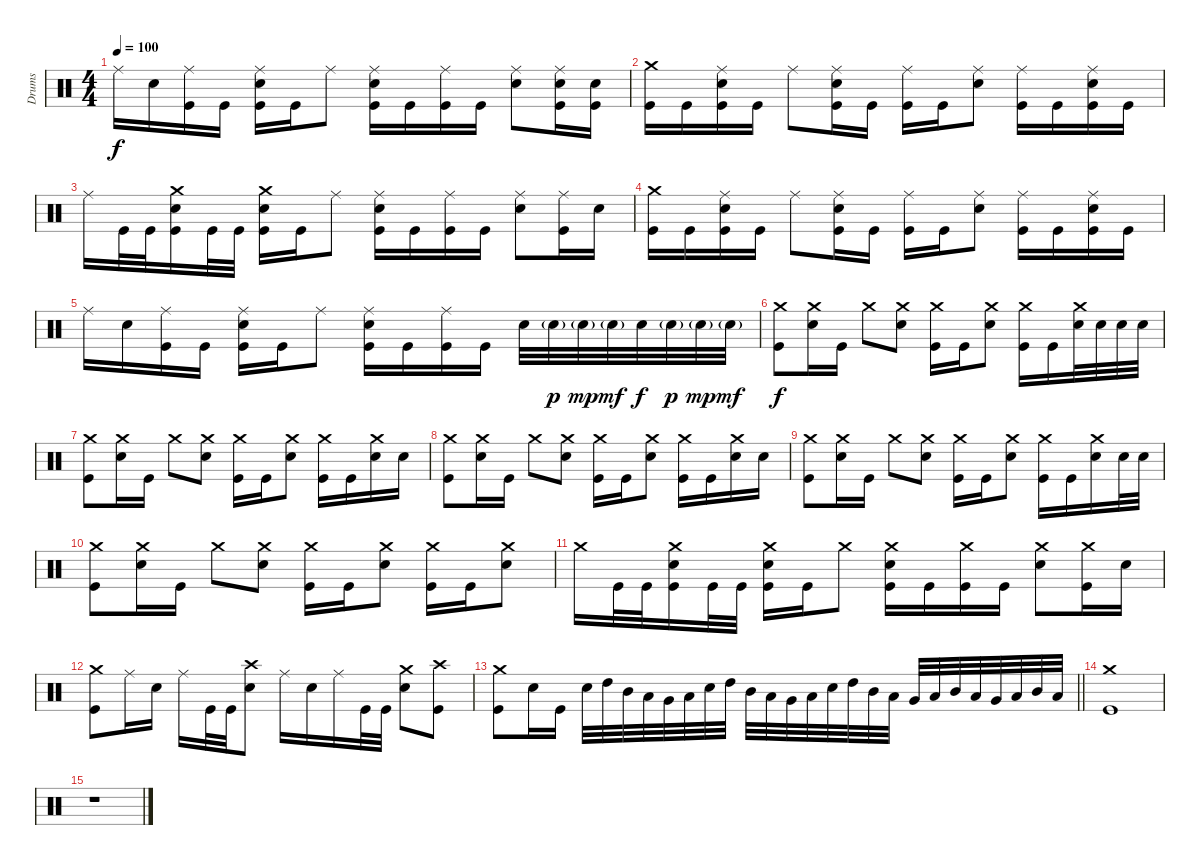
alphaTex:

\track ("Drums" "Drums") {instrument percussion}
\staff {score}
\articulation defaults
\ts (4 4)
\tempo 100
\clef neutral
\ks c "Ride (middle)".16{dy f} "Electric Snare (hit)".16
("Ride (middle)" "Kick (hit)").16 "Kick (hit)".16 ("Ride (middle)" "Electric Snare (hit)" "Kick (hit)").16 "Kick (hit)".16 "Ride (middle)".8 ("Ride (middle)" "Electric Snare (hit)" "Kick (hit)").16 "Kick (hit)".16 ("Ride (middle)" "Kick (hit)").16 "Kick (hit)".16 ("Ride (middle)" "Electric Snare (hit)").8 ("Ride (middle)" "Electric Snare (hit)" "Kick (hit)").16 ("Electric Snare (hit)" "Kick (hit)").16 |
("Crash medium (hit)" "Kick (hit)").16 "Kick (hit)".16 ("Ride (middle)" "Electric Snare (hit)" "Kick (hit)").16 "Kick (hit)".16 "Ride (middle)".8 ("Ride (middle)" "Electric Snare (hit)" "Kick (hit)").16 "Kick (hit)".16 ("Ride (middle)" "Kick (hit)").16 "Kick (hit)".16 ("Ride (middle)" "Electric Snare (hit)").8 ("Ride (middle)" "Kick (hit)").16 "Kick (hit)".16 ("Ride (middle)" "Electric Snare (hit)" "Kick (hit)").16 "Kick (hit)".16 |
"Ride (middle)".16 "Kick (hit)".32 "Kick (hit)".32 ("Crash medium (hit)" "Electric Snare (hit)" "Kick (hit)").16 "Kick (hit)".32 "Kick (hit)".32 ("Crash medium (hit)" "Electric Snare (hit)" "Kick (hit)").16 "Kick (hit)".16 "Ride (middle)".8 ("Ride (middle)" "Electric Snare (hit)" "Kick (hit)").16 "Kick (hit)".16 ("Ride (middle)" "Kick (hit)").16 "Kick (hit)".16 ("Ride (middle)" "Electric Snare (hit)").8 ("Ride (middle)" "Kick (hit)").16 "Electric Snare (hit)".16 |
("Crash medium (hit)" "Kick (hit)").16 "Kick (hit)".16 ("Ride (middle)" "Electric Snare (hit)" "Kick (hit)").16 "Kick (hit)".16 "Ride (middle)".8 ("Ride (middle)" "Electric Snare (hit)" "Kick (hit)").16 "Kick (hit)".16 ("Ride (middle)" "Kick (hit)").16 "Kick (hit)".16 ("Ride (middle)" "Electric Snare (hit)").8 ("Ride (middle)" "Kick (hit)").16 "Kick (hit)".16 ("Ride (middle)" "Electric Snare (hit)" "Kick (hit)").16 "Kick (hit)".16 |
"Ride (middle)".16 "Electric Snare (hit)".16 ("Ride (middle)" "Kick (hit)").16 "Kick (hit)".16 ("Ride (middle)" "Electric Snare (hit)" "Kick (hit)").16 "Kick (hit)".16 "Ride (middle)".8 ("Ride (middle)" "Electric Snare (hit)" "Kick (hit)").16 "Kick (hit)".16 ("Ride (middle)" "Kick (hit)").16 "Kick (hit)".16 "Electric Snare (hit)".32 "Electric Snare (hit)"{g}.32{dy p} "Electric Snare (hit)"{g}.32{dy mp} "Electric Snare (hit)"{g}.32{dy mf} "Electric Snare (hit)".32{dy f} "Electric Snare (hit)"{g}.32{dy p} "Electric Snare (hit)"{g}.32{dy mp} "Electric Snare (hit)"{g}.32{dy mf} |
("Crash medium (hit)" "Kick (hit)").8{dy f} ("Crash medium (hit)" "Electric Snare (hit)").16 "Kick (hit)".16 "Crash medium (hit)".8 ("Crash medium (hit)" "Electric Snare (hit)").8 ("Crash medium (hit)" "Kick (hit)").16 "Kick (hit)".16 ("Crash medium (hit)" "Electric Snare (hit)").8 ("Crash medium (hit)" "Kick (hit)").16 "Kick (hit)".16 ("Crash medium (hit)" "Electric Snare (hit)").32 "Electric Snare (hit)".32 "Electric Snare (hit)".32 "Electric Snare (hit)".32 |
("Crash medium (hit)" "Kick (hit)").8 ("Crash medium (hit)" "Electric Snare (hit)").16 "Kick (hit)".16 "Crash medium (hit)".8 ("Crash medium (hit)" "Electric Snare (hit)").8 ("Crash medium (hit)" "Kick (hit)").16 "Kick (hit)".16 ("Crash medium (hit)" "Electric Snare (hit)").8 ("Crash medium (hit)" "Kick (hit)").16 "Kick (hit)".16 ("Crash medium (hit)" "Electric Snare (hit)").16 "Electric Snare (hit)".16 |
("Crash medium (hit)" "Kick (hit)").8 ("Crash medium (hit)" "Electric Snare (hit)").16 "Kick (hit)".16 "Crash medium (hit)".8 ("Crash medium (hit)" "Electric Snare (hit)").8 ("Crash medium (hit)" "Kick (hit)").16 "Kick (hit)".16 ("Crash medium (hit)" "Electric Snare (hit)").8 ("Crash medium (hit)" "Kick (hit)").16 "Kick (hit)".16 ("Crash medium (hit)" "Electric Snare (hit)").16 "Electric Snare (hit)".16 |
("Crash medium (hit)" "Kick (hit)").8 ("Crash medium (hit)" "Electric Snare (hit)").16 "Kick (hit)".16 "Crash medium (hit)".8 ("Crash medium (hit)" "Electric Snare (hit)").8 ("Crash medium (hit)" "Kick (hit)").16 "Kick (hit)".16 ("Crash medium (hit)" "Electric Snare (hit)").8 ("Crash medium (hit)" "Kick (hit)").16 "Kick (hit)".16 ("Crash medium (hit)" "Electric Snare (hit)").16 "Electric Snare (hit)".32 "Electric Snare (hit)".32 |
("Crash medium (hit)" "Kick (hit)").8 ("Crash medium (hit)" "Electric Snare (hit)").16 "Kick (hit)".16 "Crash medium (hit)".8 ("Crash medium (hit)" "Electric Snare (hit)").8 ("Crash medium (hit)" "Kick (hit)").16 "Kick (hit)".16 ("Crash medium (hit)" "Electric Snare (hit)").8 ("Crash medium (hit)" "Kick (hit)").16 "Kick (hit)".16 ("Crash medium (hit)" "Electric Snare (hit)").8 |
"Crash medium (hit)".16 "Kick (hit)".32 "Kick (hit)".32 ("Crash medium (hit)" "Electric Snare (hit)" "Kick (hit)").16 "Kick (hit)".32 "Kick (hit)".32 ("Crash medium (hit)" "Electric Snare (hit)" "Kick (hit)").16 "Kick (hit)".16 "Crash medium (hit)".8 ("Crash medium (hit)" "Electric Snare (hit)" "Kick (hit)").16 "Kick (hit)".16 ("Crash medium (hit)" "Kick (hit)").16 "Kick (hit)".16 ("Crash medium (hit)" "Electric Snare (hit)").8 ("Crash medium (hit)" "Kick (hit)").16 "Electric Snare (hit)".16 |
("Crash medium (hit)" "Kick (hit)").8 "Ride (middle)".16 "Electric Snare (hit)".16 "Ride (middle)".16 "Kick (hit)".32 "Kick (hit)".32 ("Crash high (hit)" "Electric Snare (hit)").8 "Ride (middle)".16 "Electric Snare (hit)".16 "Ride (middle)".16 "Kick (hit)".32 "Kick (hit)".32 ("Crash medium (hit)" "Electric Snare (hit)").8 ("Crash high (hit)" "Kick (hit)").8 |
\barLineRight lightlight
("Crash medium (hit)" "Kick (hit)").8 "Electric Snare (hit)".16 "Kick (hit)".16 "Electric Snare (hit)".32 "High Tom (hit)".32 "Mid Tom (hit)".32 "Low Tom (hit)".32 "Very Low Tom (hit)".32 "Low Floor Tom (hit)".32 "Electric Snare (hit)".32 "High Tom (hit)".32 "Mid Tom (hit)".32 "Low Tom (hit)".32 "Very Low Tom (hit)".32 "Low Floor Tom (hit)".32 "Electric Snare (hit)".32 "High Tom (hit)".32 "Mid Tom (hit)".32 "Low Tom (hit)".32 "Very Low Tom (hit)".32 "Low Floor Tom (hit)".32 "Mid Tom (hit)".32 "Low Tom (hit)".32 "Very Low Tom (hit)".32 "Low Floor Tom (hit)".32 "Mid Tom (hit)".32 "Low Tom (hit)".32 |
("Crash medium (hit)" "Kick (hit)").1 |
r.1
